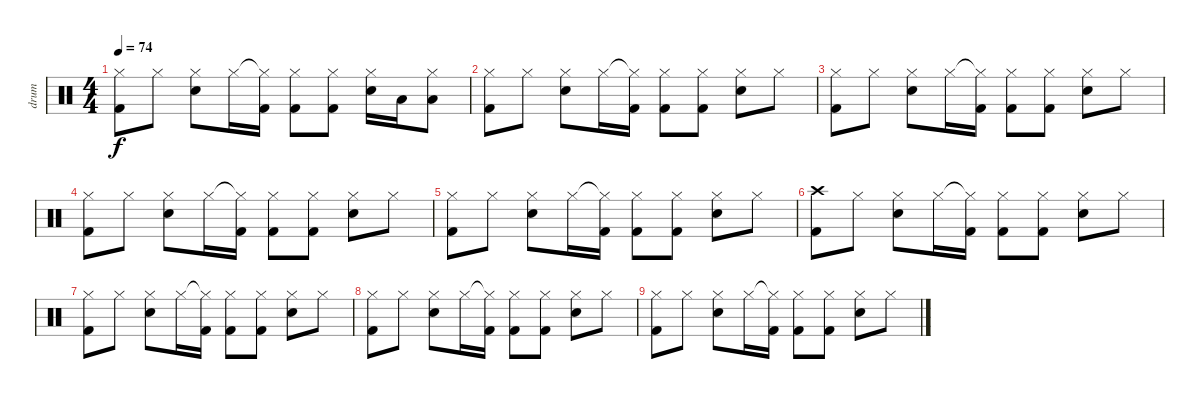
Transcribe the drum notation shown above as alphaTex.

\track ("drum" "drum") {instrument percussion}
\staff {score}
\articulation defaults
\ts (4 4)
\tempo 74
\clef neutral
\ks c
("Hi-Hat (closed)" "Kick (hit) 2").8{dy f} "Hi-Hat (closed)".8 ("Hi-Hat (closed)" "Electric Snare (hit)").8 "Hi-Hat (closed)".16 ("Hi-Hat (closed)"{t} "Kick (hit) 2").16 ("Hi-Hat (closed)" "Kick (hit) 2").8 ("Hi-Hat (closed)" "Kick (hit) 2").8 ("Hi-Hat (closed)" "Electric Snare (hit)").16 "Low Tom (hit)".16 ("Hi-Hat (closed)" "Low Tom (hit)").8 |
("Hi-Hat (closed)" "Kick (hit) 2").8{volume 0} "Hi-Hat (closed)".8 ("Hi-Hat (closed)" "Electric Snare (hit)").8 "Hi-Hat (closed)".16 ("Hi-Hat (closed)"{t} "Kick (hit) 2").16 ("Hi-Hat (closed)" "Kick (hit) 2").8 ("Hi-Hat (closed)" "Kick (hit) 2").8 ("Hi-Hat (closed)" "Electric Snare (hit)").8 "Hi-Hat (closed)".8 |
("Hi-Hat (closed)" "Kick (hit) 2").8 "Hi-Hat (closed)".8 ("Hi-Hat (closed)" "Electric Snare (hit)").8 "Hi-Hat (closed)".16 ("Hi-Hat (closed)"{t} "Kick (hit) 2").16 ("Hi-Hat (closed)" "Kick (hit) 2").8 ("Hi-Hat (closed)" "Kick (hit) 2").8 ("Hi-Hat (closed)" "Electric Snare (hit)").8 "Hi-Hat (closed)".8 |
("Hi-Hat (closed)" "Kick (hit) 2").8 "Hi-Hat (closed)".8 ("Hi-Hat (closed)" "Electric Snare (hit)").8 "Hi-Hat (closed)".16 ("Hi-Hat (closed)"{t} "Kick (hit) 2").16 ("Hi-Hat (closed)" "Kick (hit) 2").8 ("Hi-Hat (closed)" "Kick (hit) 2").8 ("Hi-Hat (closed)" "Electric Snare (hit)").8 "Hi-Hat (closed)".8 |
("Hi-Hat (closed)" "Kick (hit) 2").8 "Hi-Hat (closed)".8 ("Hi-Hat (closed)" "Electric Snare (hit)").8 "Hi-Hat (closed)".16 ("Hi-Hat (closed)"{t} "Kick (hit) 2").16 ("Hi-Hat (closed)" "Kick (hit) 2").8 ("Hi-Hat (closed)" "Kick (hit) 2").8 ("Hi-Hat (closed)" "Electric Snare (hit)").8 "Hi-Hat (closed)".8 |
("Crash high (hit)" "Kick (hit) 2").8 "Hi-Hat (closed)".8 ("Hi-Hat (closed)" "Electric Snare (hit)").8 "Hi-Hat (closed)".16 ("Hi-Hat (closed)"{t} "Kick (hit) 2").16 ("Hi-Hat (closed)" "Kick (hit) 2").8 ("Hi-Hat (closed)" "Kick (hit) 2").8 ("Hi-Hat (closed)" "Electric Snare (hit)").8 "Hi-Hat (closed)".8 |
("Hi-Hat (closed)" "Kick (hit) 2").8 "Hi-Hat (closed)".8 ("Hi-Hat (closed)" "Electric Snare (hit)").8 "Hi-Hat (closed)".16 ("Hi-Hat (closed)"{t} "Kick (hit) 2").16 ("Hi-Hat (closed)" "Kick (hit) 2").8 ("Hi-Hat (closed)" "Kick (hit) 2").8 ("Hi-Hat (closed)" "Electric Snare (hit)").8 "Hi-Hat (closed)".8 |
("Hi-Hat (closed)" "Kick (hit) 2").8 "Hi-Hat (closed)".8 ("Hi-Hat (closed)" "Electric Snare (hit)").8 "Hi-Hat (closed)".16 ("Hi-Hat (closed)"{t} "Kick (hit) 2").16 ("Hi-Hat (closed)" "Kick (hit) 2").8 ("Hi-Hat (closed)" "Kick (hit) 2").8 ("Hi-Hat (closed)" "Electric Snare (hit)").8 "Hi-Hat (closed)".8 |
("Hi-Hat (closed)" "Kick (hit) 2").8 "Hi-Hat (closed)".8 ("Hi-Hat (closed)" "Electric Snare (hit)").8 "Hi-Hat (closed)".16 ("Hi-Hat (closed)"{t} "Kick (hit) 2").16 ("Hi-Hat (closed)" "Kick (hit) 2").8 ("Hi-Hat (closed)" "Kick (hit) 2").8 ("Hi-Hat (closed)" "Electric Snare (hit)").8 "Hi-Hat (closed)".8
